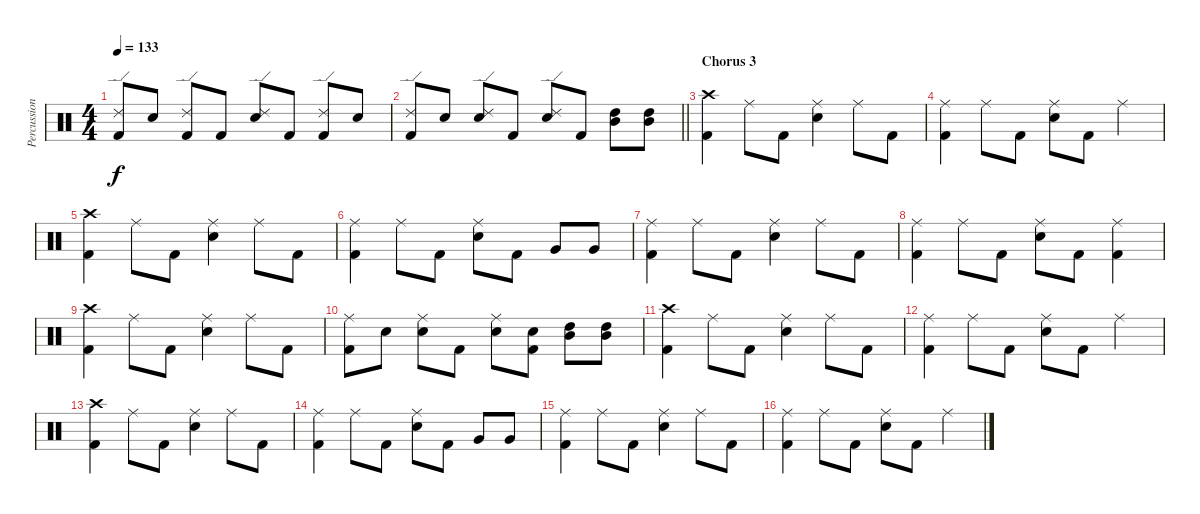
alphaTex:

\track ("Percussion" "Percussion") {instrument percussion}
\staff {score}
\articulation defaults
\ts (4 4)
\tempo 133
\clef neutral
\ks c
("Ride (edge) 2" "Kick (hit) 2").8{dy f} "Electric Snare (hit)".8 ("Ride (edge) 2" "Kick (hit) 2").8 "Kick (hit) 2".8 ("Ride (edge) 2" "Electric Snare (hit)").8 "Kick (hit) 2".8 ("Ride (edge) 2" "Kick (hit) 2").8 "Electric Snare (hit)".8 |
\barLineRight lightlight
("Ride (edge) 2" "Kick (hit) 2").8 "Electric Snare (hit)".8 ("Ride (edge) 2" "Electric Snare (hit)").8 "Kick (hit) 2".8 ("Ride (edge) 2" "Electric Snare (hit)").8 "Kick (hit) 2".8 ("Mid Tom (hit)" "High Tom (hit)").8 ("Mid Tom (hit)" "High Tom (hit)").8 |
\section ("" "Chorus 3")
("Crash high (hit)" "Kick (hit) 2").4 "Ride (middle)".8 "Kick (hit) 2".8 ("Ride (middle)" "Electric Snare (hit)").4 "Ride (middle)".8 "Kick (hit) 2".8 |
("Ride (middle)" "Kick (hit) 2").4 "Ride (middle)".8 "Kick (hit) 2".8 ("Ride (middle)" "Electric Snare (hit)").8 "Kick (hit) 2".8 "Ride (middle)".4 |
("Crash high (hit)" "Kick (hit) 2").4 "Ride (middle)".8 "Kick (hit) 2".8 ("Ride (middle)" "Electric Snare (hit)").4 "Ride (middle)".8 "Kick (hit) 2".8 |
("Ride (middle)" "Kick (hit) 2").4 "Ride (middle)".8 "Kick (hit) 2".8 ("Ride (middle)" "Electric Snare (hit)").8 "Kick (hit) 2".8 "Very Low Tom (hit)".8 "Very Low Tom (hit)".8 |
("Ride (middle)" "Kick (hit) 2").4 "Ride (middle)".8 "Kick (hit) 2".8 ("Ride (middle)" "Electric Snare (hit)").4 "Ride (middle)".8 "Kick (hit) 2".8 |
("Ride (middle)" "Kick (hit) 2").4 "Ride (middle)".8 "Kick (hit) 2".8 ("Ride (middle)" "Electric Snare (hit)").8 "Kick (hit) 2".8 ("Ride (middle)" "Kick (hit) 2").4 |
("Crash high (hit)" "Kick (hit) 2").4 "Ride (middle)".8 "Kick (hit) 2".8 ("Ride (middle)" "Electric Snare (hit)").4 "Ride (middle)".8 "Kick (hit) 2".8 |
("Ride (middle)" "Kick (hit) 2").8 "Electric Snare (hit)".8 ("Ride (middle)" "Electric Snare (hit)").8 "Kick (hit) 2".8 ("Ride (middle)" "Electric Snare (hit)").8 ("Electric Snare (hit)" "Kick (hit) 2").8 ("Mid Tom (hit)" "High Tom (hit)").8 ("Mid Tom (hit)" "High Tom (hit)").8 |
("Crash high (hit)" "Kick (hit) 2").4 "Ride (middle)".8 "Kick (hit) 2".8 ("Ride (middle)" "Electric Snare (hit)").4 "Ride (middle)".8 "Kick (hit) 2".8 |
("Ride (middle)" "Kick (hit) 2").4 "Ride (middle)".8 "Kick (hit) 2".8 ("Ride (middle)" "Electric Snare (hit)").8 "Kick (hit) 2".8 "Ride (middle)".4 |
("Crash high (hit)" "Kick (hit) 2").4 "Ride (middle)".8 "Kick (hit) 2".8 ("Ride (middle)" "Electric Snare (hit)").4 "Ride (middle)".8 "Kick (hit) 2".8 |
("Ride (middle)" "Kick (hit) 2").4 "Ride (middle)".8 "Kick (hit) 2".8 ("Ride (middle)" "Electric Snare (hit)").8 "Kick (hit) 2".8 "Very Low Tom (hit)".8 "Very Low Tom (hit)".8 |
("Ride (middle)" "Kick (hit) 2").4 "Ride (middle)".8 "Kick (hit) 2".8 ("Ride (middle)" "Electric Snare (hit)").4 "Ride (middle)".8 "Kick (hit) 2".8 |
("Ride (middle)" "Kick (hit) 2").4 "Ride (middle)".8 "Kick (hit) 2".8 ("Ride (middle)" "Electric Snare (hit)").8 "Kick (hit) 2".8 "Ride (middle)".4
